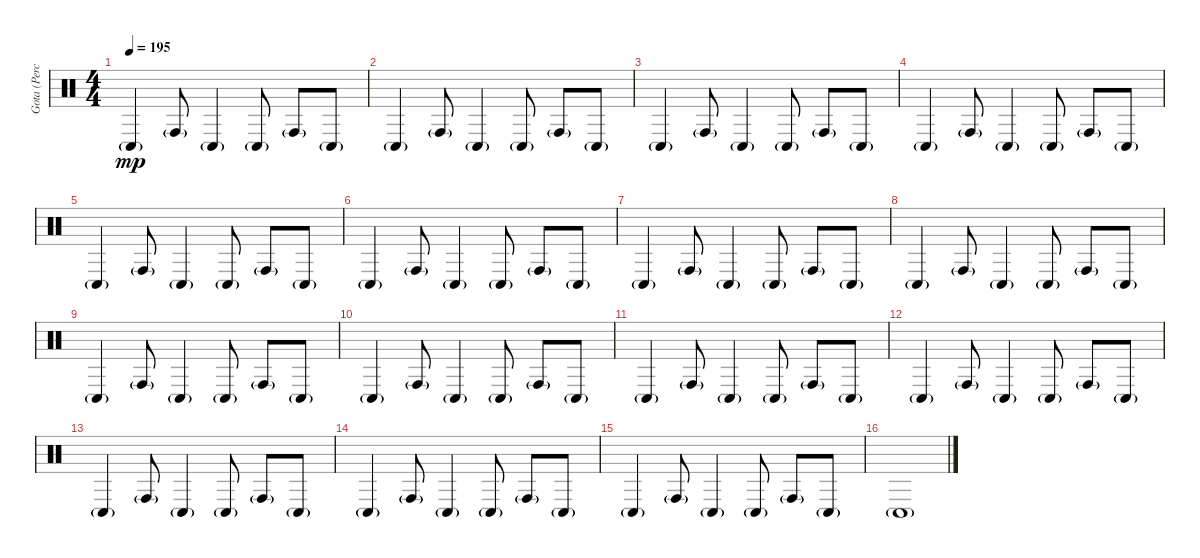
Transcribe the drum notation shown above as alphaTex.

\track ("Gota (Percussion)" "Gota (Perc") {instrument percussion}
\staff {score}
\articulation defaults
\ts (4 4)
\tempo 195
\clef neutral
\ks c "Conga low (hit)"{g}.4{dy mp} "Conga high (hit)"{g}.8 "Conga low (hit)"{g}.4 "Conga low (hit)"{g}.8 "Conga high (hit)"{g}.8 "Conga low (hit)"{g}.8
|
"Conga low (hit)"{g}.4 "Conga high (hit)"{g}.8 "Conga low (hit)"{g}.4 "Conga low (hit)"{g}.8 "Conga high (hit)"{g}.8 "Conga low (hit)"{g}.8 |
"Conga low (hit)"{g}.4 "Conga high (hit)"{g}.8 "Conga low (hit)"{g}.4 "Conga low (hit)"{g}.8 "Conga high (hit)"{g}.8 "Conga low (hit)"{g}.8 |
"Conga low (hit)"{g}.4 "Conga high (hit)"{g}.8 "Conga low (hit)"{g}.4 "Conga low (hit)"{g}.8 "Conga high (hit)"{g}.8 "Conga low (hit)"{g}.8 |
"Conga low (hit)"{g}.4 "Conga high (hit)"{g}.8 "Conga low (hit)"{g}.4 "Conga low (hit)"{g}.8 "Conga high (hit)"{g}.8 "Conga low (hit)"{g}.8 |
"Conga low (hit)"{g}.4 "Conga high (hit)"{g}.8 "Conga low (hit)"{g}.4 "Conga low (hit)"{g}.8 "Conga high (hit)"{g}.8 "Conga low (hit)"{g}.8 |
"Conga low (hit)"{g}.4 "Conga high (hit)"{g}.8 "Conga low (hit)"{g}.4 "Conga low (hit)"{g}.8 "Conga high (hit)"{g}.8 "Conga low (hit)"{g}.8 |
"Conga low (hit)"{g}.4 "Conga high (hit)"{g}.8 "Conga low (hit)"{g}.4 "Conga low (hit)"{g}.8 "Conga high (hit)"{g}.8 "Conga low (hit)"{g}.8 |
"Conga low (hit)"{g}.4 "Conga high (hit)"{g}.8 "Conga low (hit)"{g}.4 "Conga low (hit)"{g}.8 "Conga high (hit)"{g}.8 "Conga low (hit)"{g}.8 |
"Conga low (hit)"{g}.4 "Conga high (hit)"{g}.8 "Conga low (hit)"{g}.4 "Conga low (hit)"{g}.8 "Conga high (hit)"{g}.8 "Conga low (hit)"{g}.8 |
"Conga low (hit)"{g}.4 "Conga high (hit)"{g}.8 "Conga low (hit)"{g}.4 "Conga low (hit)"{g}.8 "Conga high (hit)"{g}.8 "Conga low (hit)"{g}.8 |
"Conga low (hit)"{g}.4 "Conga high (hit)"{g}.8 "Conga low (hit)"{g}.4 "Conga low (hit)"{g}.8 "Conga high (hit)"{g}.8 "Conga low (hit)"{g}.8 |
"Conga low (hit)"{g}.4 "Conga high (hit)"{g}.8 "Conga low (hit)"{g}.4 "Conga low (hit)"{g}.8 "Conga high (hit)"{g}.8 "Conga low (hit)"{g}.8 |
"Conga low (hit)"{g}.4 "Conga high (hit)"{g}.8 "Conga low (hit)"{g}.4 "Conga low (hit)"{g}.8 "Conga high (hit)"{g}.8 "Conga low (hit)"{g}.8 |
"Conga low (hit)"{g}.4 "Conga high (hit)"{g}.8 "Conga low (hit)"{g}.4 "Conga low (hit)"{g}.8 "Conga high (hit)"{g}.8 "Conga low (hit)"{g}.8 |
"Conga low (hit)"{g}.1
